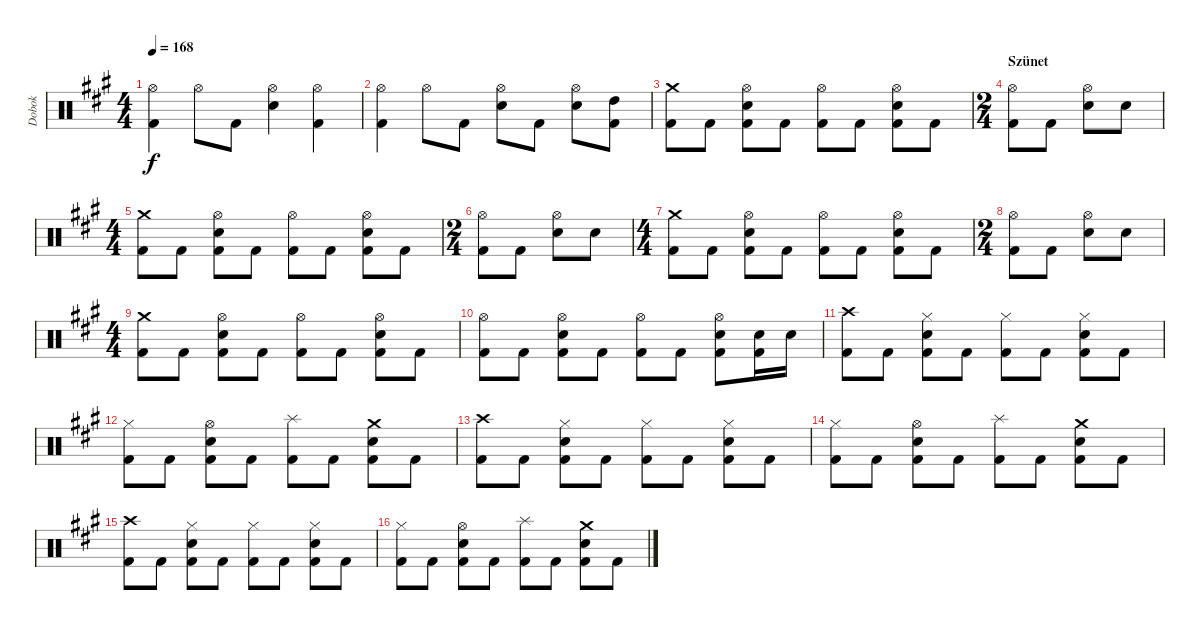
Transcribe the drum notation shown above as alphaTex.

\track ("Dobok" "Dobok") {instrument percussion}
\staff {score}
\articulation defaults
\ts (4 4)
\tempo 168
\clef neutral
\ks f#minor
("Hi-Hat (open)" "Kick (hit) 2").4{dy f} "Hi-Hat (open)".8 "Kick (hit) 2".8 ("Hi-Hat (open)" "Snare (hit) 2").4 ("Hi-Hat (open)" "Kick (hit) 2").4 |
("Hi-Hat (open)" "Kick (hit) 2").4 "Hi-Hat (open)".8 "Kick (hit) 2".8 ("Hi-Hat (open)" "Snare (hit) 2").8 "Kick (hit) 2".8 ("Hi-Hat (open)" "Snare (hit) 2").8 ("High Tom (hit)" "Kick (hit) 2").8 |
("Crash medium (hit)" "Kick (hit) 2").8 "Kick (hit) 2".8 ("Hi-Hat (open)" "Snare (hit) 2" "Kick (hit) 2").8 "Kick (hit) 2".8 ("Hi-Hat (open)" "Kick (hit) 2").8 "Kick (hit) 2".8 ("Hi-Hat (open)" "Snare (hit) 2" "Kick (hit) 2").8 "Kick (hit) 2".8 |
\ts (2 4)
\section ("" "Szünet")
("Hi-Hat (open)" "Kick (hit) 2").8 "Kick (hit) 2".8 ("Hi-Hat (open)" "Snare (hit) 2").8 "Snare (hit) 2".8 |
\ts (4 4)
("Crash medium (hit)" "Kick (hit) 2").8 "Kick (hit) 2".8 ("Hi-Hat (open)" "Snare (hit) 2" "Kick (hit) 2").8 "Kick (hit) 2".8 ("Hi-Hat (open)" "Kick (hit) 2").8 "Kick (hit) 2".8 ("Hi-Hat (open)" "Snare (hit) 2" "Kick (hit) 2").8 "Kick (hit) 2".8 |
\ts (2 4)
("Hi-Hat (open)" "Kick (hit) 2").8 "Kick (hit) 2".8 ("Hi-Hat (open)" "Snare (hit) 2").8 "Snare (hit) 2".8 |
\ts (4 4)
("Crash medium (hit)" "Kick (hit) 2").8 "Kick (hit) 2".8 ("Hi-Hat (open)" "Snare (hit) 2" "Kick (hit) 2").8 "Kick (hit) 2".8 ("Hi-Hat (open)" "Kick (hit) 2").8 "Kick (hit) 2".8 ("Hi-Hat (open)" "Snare (hit) 2" "Kick (hit) 2").8 "Kick (hit) 2".8 |
\ts (2 4)
("Hi-Hat (open)" "Kick (hit) 2").8 "Kick (hit) 2".8 ("Hi-Hat (open)" "Snare (hit) 2").8 "Snare (hit) 2".8 |
\ts (4 4)
("Crash medium (hit)" "Kick (hit) 2").8 "Kick (hit) 2".8 ("Hi-Hat (open)" "Snare (hit) 2" "Kick (hit) 2").8 "Kick (hit) 2".8 ("Hi-Hat (open)" "Kick (hit) 2").8 "Kick (hit) 2".8 ("Hi-Hat (open)" "Snare (hit) 2" "Kick (hit) 2").8 "Kick (hit) 2".8 |
("Hi-Hat (open)" "Kick (hit) 2").8 "Kick (hit) 2".8 ("Hi-Hat (open)" "Snare (hit) 2" "Kick (hit) 2").8 "Kick (hit) 2".8 ("Hi-Hat (open)" "Kick (hit) 2").8 "Kick (hit) 2".8 ("Hi-Hat (open)" "Snare (hit) 2" "Kick (hit) 2").8 ("Snare (hit) 2" "Kick (hit) 2").16 "Snare (hit) 2".16 |
("Crash high (hit)" "Kick (hit) 2").8 "Kick (hit) 2".8 ("Hi-Hat (closed)" "Snare (hit) 2" "Kick (hit) 2").8 "Kick (hit) 2".8 ("Hi-Hat (closed)" "Kick (hit) 2").8 "Kick (hit) 2".8 ("Hi-Hat (closed)" "Snare (hit) 2" "Kick (hit) 2").8 "Kick (hit) 2".8 |
("Hi-Hat (closed)" "Kick (hit) 2").8 "Kick (hit) 2".8 ("Hi-Hat (open)" "Snare (hit) 2" "Kick (hit) 2").8 "Kick (hit) 2".8 ("Splash (hit)" "Kick (hit) 2").8 "Kick (hit) 2".8 ("Crash medium (hit)" "Snare (hit) 2" "Kick (hit) 2").8 "Kick (hit) 2".8 |
("Crash high (hit)" "Kick (hit) 2").8 "Kick (hit) 2".8 ("Hi-Hat (closed)" "Snare (hit) 2" "Kick (hit) 2").8 "Kick (hit) 2".8 ("Hi-Hat (closed)" "Kick (hit) 2").8 "Kick (hit) 2".8 ("Hi-Hat (closed)" "Snare (hit) 2" "Kick (hit) 2").8 "Kick (hit) 2".8 |
("Hi-Hat (closed)" "Kick (hit) 2").8 "Kick (hit) 2".8 ("Hi-Hat (open)" "Snare (hit) 2" "Kick (hit) 2").8 "Kick (hit) 2".8 ("Splash (hit)" "Kick (hit) 2").8 "Kick (hit) 2".8 ("Crash medium (hit)" "Snare (hit) 2" "Kick (hit) 2").8 "Kick (hit) 2".8 |
("Crash high (hit)" "Kick (hit) 2").8 "Kick (hit) 2".8 ("Hi-Hat (closed)" "Snare (hit) 2" "Kick (hit) 2").8 "Kick (hit) 2".8 ("Hi-Hat (closed)" "Kick (hit) 2").8 "Kick (hit) 2".8 ("Hi-Hat (closed)" "Snare (hit) 2" "Kick (hit) 2").8 "Kick (hit) 2".8 |
("Hi-Hat (closed)" "Kick (hit) 2").8 "Kick (hit) 2".8 ("Hi-Hat (open)" "Snare (hit) 2" "Kick (hit) 2").8 "Kick (hit) 2".8 ("Splash (hit)" "Kick (hit) 2").8 "Kick (hit) 2".8 ("Crash medium (hit)" "Snare (hit) 2" "Kick (hit) 2").8 "Kick (hit) 2".8
